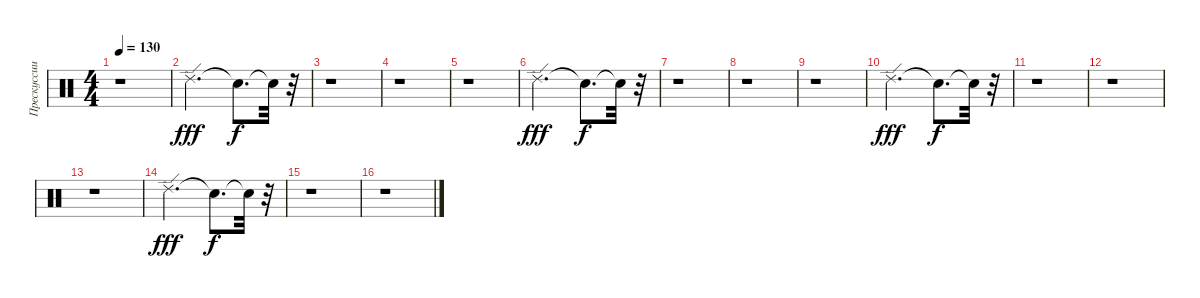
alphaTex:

\track ("Прескуссии 2" "Прескуссии") {instrument percussion}
\staff {score}
\articulation defaults
\ts (4 4)
\tempo 130
\clef neutral
\ks c
r.1{dy f} |
"Ride (edge) 2".2{d dy fff} "Snare (hit)"{t}.8{d dy f} "Snare (hit)"{t}.32 r.32 |
r.1 |
r.1 |
r.1 |
"Ride (edge) 2".2{d dy fff} "Snare (hit)"{t}.8{d dy f} "Snare (hit)"{t}.32 r.32 |
r.1 |
r.1 |
r.1 |
"Ride (edge) 2".2{d dy fff} "Snare (hit)"{t}.8{d dy f} "Snare (hit)"{t}.32 r.32 |
r.1 |
r.1 |
r.1 |
"Ride (edge) 2".2{d dy fff} "Snare (hit)"{t}.8{d dy f} "Snare (hit)"{t}.32 r.32 |
r.1 |
r.1
